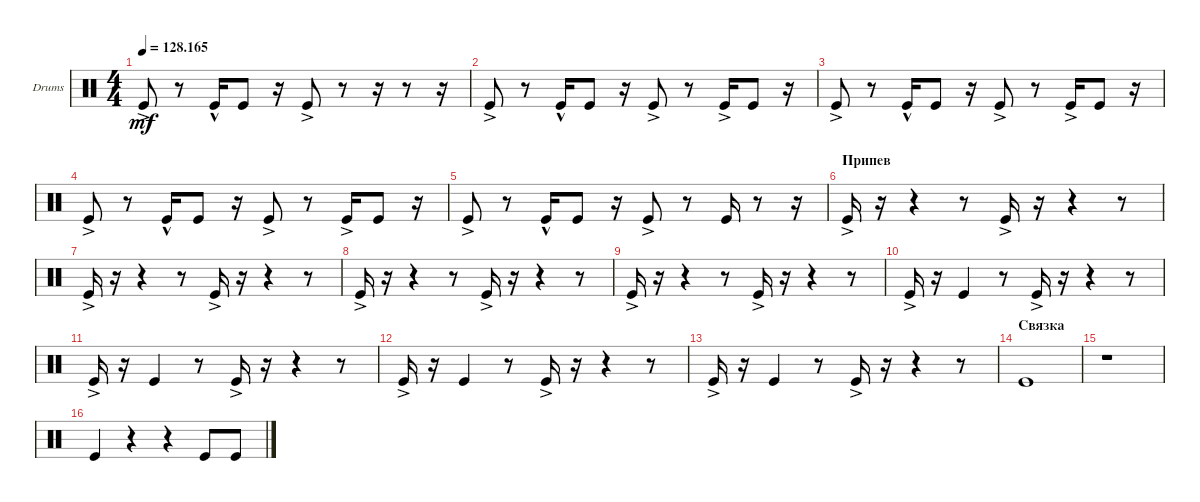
\defaultSystemsLayout 4
\bracketExtendMode groupsimilarinstruments
\firstSystemTrackNameOrientation horizontal
\otherSystemsTrackNameOrientation horizontal
\track ("Drumkit" "Drums") {instrument percussion}
\staff {score}
\articulation defaults
\ts (4 4)
\tempo
128.165
\accidentals auto
\clef neutral
\ottava regular
\simile none
\ks c "Kick (hit)"{ac}.8{dy mf}
r.8 "Kick (hit)"{hac}.16 "Kick (hit)".8 r.16 "Kick (hit)"{ac}.8 r.8 r.16 r.8 r.16 |
"Kick (hit)"{ac}.8 r.8 "Kick (hit)"{hac}.16 "Kick (hit)".8 r.16 "Kick (hit)"{ac}.8 r.8 "Kick (hit)"{ac}.16 "Kick (hit)".8 r.16 |
"Kick (hit)"{ac}.8 r.8 "Kick (hit)"{hac}.16 "Kick (hit)".8 r.16 "Kick (hit)"{ac}.8 r.8 "Kick (hit)"{ac}.16 "Kick (hit)".8 r.16 |
"Kick (hit)"{ac}.8 r.8 "Kick (hit)"{hac}.16 "Kick (hit)".8 r.16 "Kick (hit)"{ac}.8 r.8 "Kick (hit)"{ac}.16 "Kick (hit)".8 r.16 |
"Kick (hit)"{ac}.8 r.8 "Kick (hit)"{hac}.16 "Kick (hit)".8 r.16 "Kick (hit)"{ac}.8 r.8 "Kick (hit)".16 r.8 r.16 |
\section ("" "Припев")
"Kick (hit)"{ac}.16 r.16 r.4 r.8 "Kick (hit)"{ac}.16 r.16 r.4 r.8 |
"Kick (hit)"{ac}.16 r.16 r.4 r.8 "Kick (hit)"{ac}.16 r.16 r.4 r.8 |
"Kick (hit)"{ac}.16 r.16 r.4 r.8 "Kick (hit)"{ac}.16 r.16 r.4 r.8 |
"Kick (hit)"{ac}.16 r.16 r.4 r.8 "Kick (hit)"{ac}.16 r.16 r.4 r.8 |
"Kick (hit)"{ac}.16 r.16 "Kick (hit)".4 r.8 "Kick (hit)"{ac}.16 r.16 r.4 r.8 |
"Kick (hit)"{ac}.16 r.16 "Kick (hit)".4 r.8 "Kick (hit)"{ac}.16 r.16 r.4 r.8 |
"Kick (hit)"{ac}.16 r.16 "Kick (hit)".4 r.8 "Kick (hit)"{ac}.16 r.16 r.4 r.8 |
"Kick (hit)"{ac}.16 r.16 "Kick (hit)".4 r.8 "Kick (hit)"{ac}.16 r.16 r.4 r.8 |
\section ("" "Связка")
"Kick (hit)".1 |
r.1 |
"Kick (hit)".4 r.4 r.4 "Kick (hit)".8 "Kick (hit)".8
